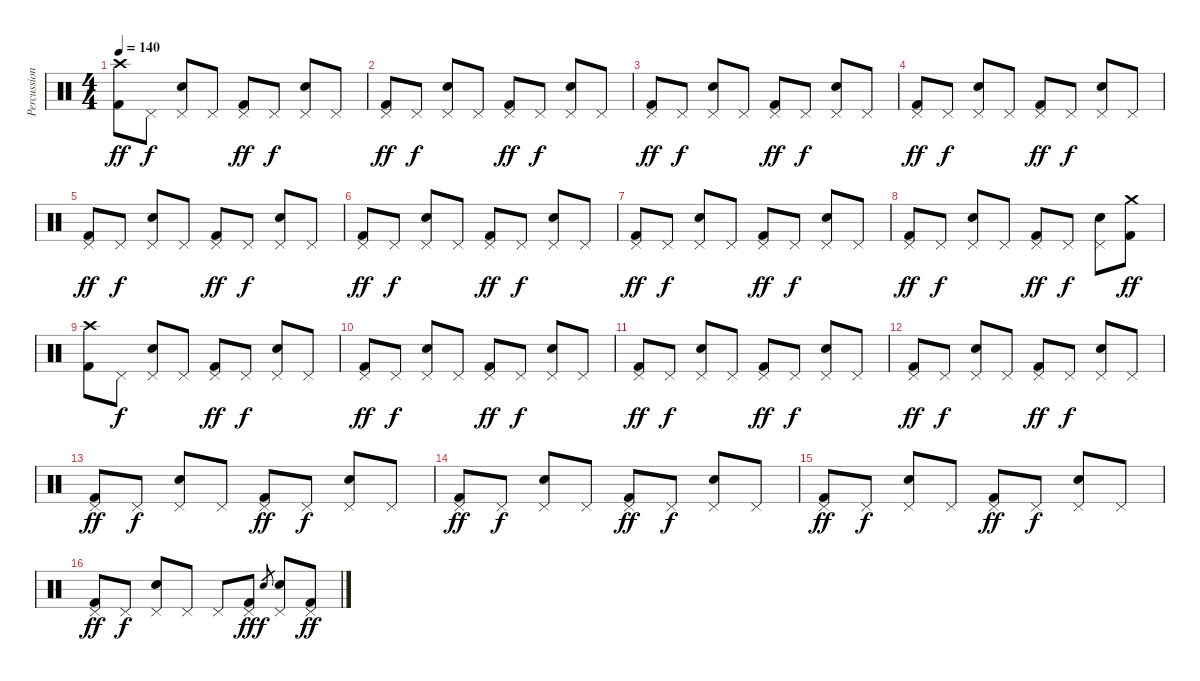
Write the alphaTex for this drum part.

\track ("Percussion" "Percussion") {instrument percussion}
\staff {score}
\articulation defaults
\ts (4 4)
\tempo 140
\clef neutral
\ks c
("Crash high (hit)" "Kick (hit) 2").8{dy ff} "Pedal Hi-Hat (hit)".8{dy f} ("Pedal Hi-Hat (hit)" "Snare (hit) 2").8 "Pedal Hi-Hat (hit)".8 ("Pedal Hi-Hat (hit)" "Kick (hit) 2").8{dy ff} "Pedal Hi-Hat (hit)".8{dy f} ("Pedal Hi-Hat (hit)" "Snare (hit) 2").8 "Pedal Hi-Hat (hit)".8 |
("Pedal Hi-Hat (hit)" "Kick (hit) 2").8{dy ff} "Pedal Hi-Hat (hit)".8{dy f} ("Pedal Hi-Hat (hit)" "Snare (hit) 2").8 "Pedal Hi-Hat (hit)".8 ("Pedal Hi-Hat (hit)" "Kick (hit) 2").8{dy ff} "Pedal Hi-Hat (hit)".8{dy f} ("Pedal Hi-Hat (hit)" "Snare (hit) 2").8 "Pedal Hi-Hat (hit)".8 |
("Pedal Hi-Hat (hit)" "Kick (hit) 2").8{dy ff} "Pedal Hi-Hat (hit)".8{dy f} ("Pedal Hi-Hat (hit)" "Snare (hit) 2").8 "Pedal Hi-Hat (hit)".8 ("Pedal Hi-Hat (hit)" "Kick (hit) 2").8{dy ff} "Pedal Hi-Hat (hit)".8{dy f} ("Pedal Hi-Hat (hit)" "Snare (hit) 2").8 "Pedal Hi-Hat (hit)".8 |
("Pedal Hi-Hat (hit)" "Kick (hit) 2").8{dy ff} "Pedal Hi-Hat (hit)".8{dy f} ("Pedal Hi-Hat (hit)" "Snare (hit) 2").8 "Pedal Hi-Hat (hit)".8 ("Pedal Hi-Hat (hit)" "Kick (hit) 2").8{dy ff} "Pedal Hi-Hat (hit)".8{dy f} ("Pedal Hi-Hat (hit)" "Snare (hit) 2").8 "Pedal Hi-Hat (hit)".8 |
("Pedal Hi-Hat (hit)" "Kick (hit) 2").8{dy ff} "Pedal Hi-Hat (hit)".8{dy f} ("Pedal Hi-Hat (hit)" "Snare (hit) 2").8 "Pedal Hi-Hat (hit)".8 ("Pedal Hi-Hat (hit)" "Kick (hit) 2").8{dy ff} "Pedal Hi-Hat (hit)".8{dy f} ("Pedal Hi-Hat (hit)" "Snare (hit) 2").8 "Pedal Hi-Hat (hit)".8 |
("Pedal Hi-Hat (hit)" "Kick (hit) 2").8{dy ff} "Pedal Hi-Hat (hit)".8{dy f} ("Pedal Hi-Hat (hit)" "Snare (hit) 2").8 "Pedal Hi-Hat (hit)".8 ("Pedal Hi-Hat (hit)" "Kick (hit) 2").8{dy ff} "Pedal Hi-Hat (hit)".8{dy f} ("Pedal Hi-Hat (hit)" "Snare (hit) 2").8 "Pedal Hi-Hat (hit)".8 |
("Pedal Hi-Hat (hit)" "Kick (hit) 2").8{dy ff} "Pedal Hi-Hat (hit)".8{dy f} ("Pedal Hi-Hat (hit)" "Snare (hit) 2").8 "Pedal Hi-Hat (hit)".8 ("Pedal Hi-Hat (hit)" "Kick (hit) 2").8{dy ff} "Pedal Hi-Hat (hit)".8{dy f} ("Pedal Hi-Hat (hit)" "Snare (hit) 2").8 "Pedal Hi-Hat (hit)".8 |
("Pedal Hi-Hat (hit)" "Kick (hit) 2").8{dy ff} "Pedal Hi-Hat (hit)".8{dy f} ("Pedal Hi-Hat (hit)" "Snare (hit) 2").8 "Pedal Hi-Hat (hit)".8 ("Pedal Hi-Hat (hit)" "Kick (hit) 2").8{dy ff} "Pedal Hi-Hat (hit)".8{dy f} ("Pedal Hi-Hat (hit)" "Snare (hit) 2").8 ("Crash medium (hit)" "Kick (hit) 2").8{dy ff} |
("Crash high (hit)" "Kick (hit) 2").8 "Pedal Hi-Hat (hit)".8{dy f} ("Pedal Hi-Hat (hit)" "Snare (hit) 2").8 "Pedal Hi-Hat (hit)".8 ("Pedal Hi-Hat (hit)" "Kick (hit) 2").8{dy ff} "Pedal Hi-Hat (hit)".8{dy f} ("Pedal Hi-Hat (hit)" "Snare (hit) 2").8 "Pedal Hi-Hat (hit)".8 |
("Pedal Hi-Hat (hit)" "Kick (hit) 2").8{dy ff} "Pedal Hi-Hat (hit)".8{dy f} ("Pedal Hi-Hat (hit)" "Snare (hit) 2").8 "Pedal Hi-Hat (hit)".8 ("Pedal Hi-Hat (hit)" "Kick (hit) 2").8{dy ff} "Pedal Hi-Hat (hit)".8{dy f} ("Pedal Hi-Hat (hit)" "Snare (hit) 2").8 "Pedal Hi-Hat (hit)".8 |
("Pedal Hi-Hat (hit)" "Kick (hit) 2").8{dy ff} "Pedal Hi-Hat (hit)".8{dy f} ("Pedal Hi-Hat (hit)" "Snare (hit) 2").8 "Pedal Hi-Hat (hit)".8 ("Pedal Hi-Hat (hit)" "Kick (hit) 2").8{dy ff} "Pedal Hi-Hat (hit)".8{dy f} ("Pedal Hi-Hat (hit)" "Snare (hit) 2").8 "Pedal Hi-Hat (hit)".8 |
("Pedal Hi-Hat (hit)" "Kick (hit) 2").8{dy ff} "Pedal Hi-Hat (hit)".8{dy f} ("Pedal Hi-Hat (hit)" "Snare (hit) 2").8 "Pedal Hi-Hat (hit)".8 ("Pedal Hi-Hat (hit)" "Kick (hit) 2").8{dy ff} "Pedal Hi-Hat (hit)".8{dy f} ("Pedal Hi-Hat (hit)" "Snare (hit) 2").8 "Pedal Hi-Hat (hit)".8 |
("Pedal Hi-Hat (hit)" "Kick (hit) 2").8{dy ff} "Pedal Hi-Hat (hit)".8{dy f} ("Pedal Hi-Hat (hit)" "Snare (hit) 2").8 "Pedal Hi-Hat (hit)".8 ("Pedal Hi-Hat (hit)" "Kick (hit) 2").8{dy ff} "Pedal Hi-Hat (hit)".8{dy f} ("Pedal Hi-Hat (hit)" "Snare (hit) 2").8 "Pedal Hi-Hat (hit)".8 |
("Pedal Hi-Hat (hit)" "Kick (hit) 2").8{dy ff} "Pedal Hi-Hat (hit)".8{dy f} ("Pedal Hi-Hat (hit)" "Snare (hit) 2").8 "Pedal Hi-Hat (hit)".8 ("Pedal Hi-Hat (hit)" "Kick (hit) 2").8{dy ff} "Pedal Hi-Hat (hit)".8{dy f} ("Pedal Hi-Hat (hit)" "Snare (hit) 2").8 "Pedal Hi-Hat (hit)".8 |
("Pedal Hi-Hat (hit)" "Kick (hit) 2").8{dy ff} "Pedal Hi-Hat (hit)".8{dy f} ("Pedal Hi-Hat (hit)" "Snare (hit) 2").8 "Pedal Hi-Hat (hit)".8 ("Pedal Hi-Hat (hit)" "Kick (hit) 2").8{dy ff} "Pedal Hi-Hat (hit)".8{dy f} ("Pedal Hi-Hat (hit)" "Snare (hit) 2").8 "Pedal Hi-Hat (hit)".8 |
("Pedal Hi-Hat (hit)" "Kick (hit) 2").8{dy ff} "Pedal Hi-Hat (hit)".8{dy f} ("Pedal Hi-Hat (hit)" "Snare (hit) 2").8 "Pedal Hi-Hat (hit)".8 "Pedal Hi-Hat (hit)".8 ("Pedal Hi-Hat (hit)" "Kick (hit) 2").8{dy ff} "Snare (hit) 2".8{gr dy f} ("Pedal Hi-Hat (hit)" "Snare (hit) 2").8 ("Pedal Hi-Hat (hit)" "Kick (hit) 2").8{dy ff}
